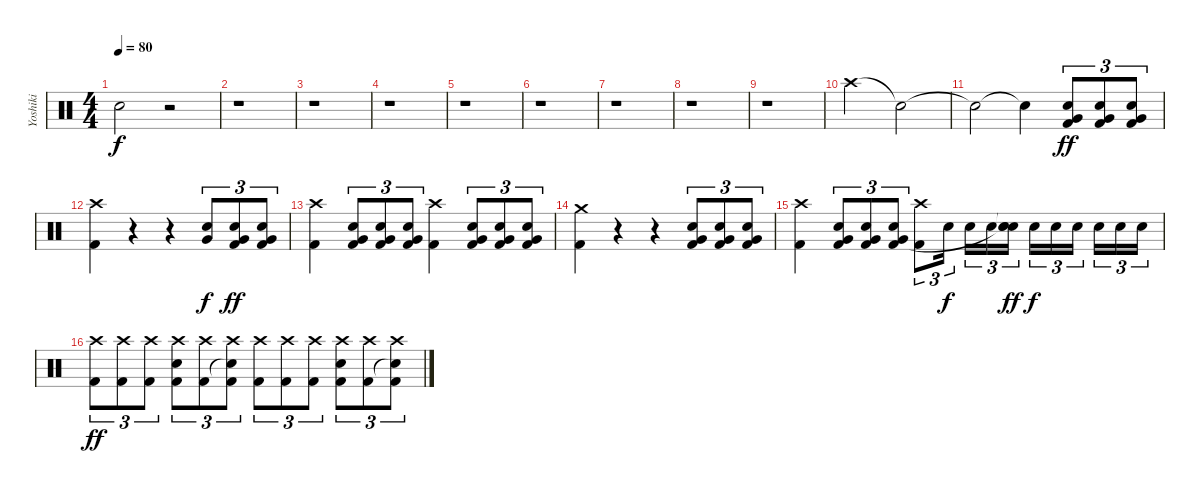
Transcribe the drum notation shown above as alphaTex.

\track ("Yoshiki" "Yoshiki") {instrument percussion}
\staff {score}
\articulation defaults
\ts (4 4)
\tempo 80
\clef neutral
\ks c "Snare (hit)"{t}.2{dy f}
r.2 |
r.1 |
r.1 |
r.1 |
r.1 |
r.1 |
r.1 |
r.1 |
r.1 |
"Crash high (hit)".2 "Snare (hit)"{t}.2 |
"Snare (hit)"{t}.2 "Snare (hit)"{t}.4 ("Snare (hit) 2" "Very Low Tom (hit)" "Kick (hit) 2").8{tu (3 2) dy ff} ("Snare (hit) 2" "Very Low Tom (hit)" "Kick (hit) 2").8{tu (3 2)} ("Snare (hit) 2" "Very Low Tom (hit)" "Kick (hit) 2").8{tu (3 2)} |
("Crash high (hit)" "Kick (hit) 2").4 r.4 r.4 ("Snare (hit) 2" "Very Low Tom (hit)").8{tu (3 2) dy f} ("Snare (hit) 2" "Very Low Tom (hit)" "Kick (hit) 2").8{tu (3 2) dy ff} ("Snare (hit) 2" "Very Low Tom (hit)" "Kick (hit) 2").8{tu (3 2)} |
("Crash high (hit)" "Kick (hit) 2").4 ("Snare (hit) 2" "Very Low Tom (hit)" "Kick (hit) 2").8{tu (3 2)} ("Snare (hit) 2" "Very Low Tom (hit)" "Kick (hit) 2").8{tu (3 2)} ("Snare (hit) 2" "Very Low Tom (hit)" "Kick (hit) 2").8{tu (3 2)} ("Crash high (hit)" "Kick (hit) 2").4 ("Snare (hit) 2" "Very Low Tom (hit)" "Kick (hit) 2").8{tu (3 2)} ("Snare (hit) 2" "Very Low Tom (hit)" "Kick (hit) 2").8{tu (3 2)} ("Snare (hit) 2" "Very Low Tom (hit)" "Kick (hit) 2").8{tu (3 2)} |
("Crash medium (hit)" "Kick (hit) 2").4 r.4 r.4 ("Snare (hit) 2" "Very Low Tom (hit)" "Kick (hit) 2").8{tu (3 2)} ("Snare (hit) 2" "Very Low Tom (hit)" "Kick (hit) 2").8{tu (3 2)} ("Snare (hit) 2" "Very Low Tom (hit)" "Kick (hit) 2").8{tu (3 2)} |
("Crash high (hit)" "Kick (hit) 2").4 ("Snare (hit) 2" "Very Low Tom (hit)" "Kick (hit) 2").8{tu (3 2)} ("Snare (hit) 2" "Very Low Tom (hit)" "Kick (hit) 2").8{tu (3 2)} ("Snare (hit) 2" "Very Low Tom (hit)" "Kick (hit) 2").8{tu (3 2)} ("Crash high (hit)" "Kick (hit) 2").8{tu (3 2)} "Snare (hit) 2".16{tu (3 2) dy f} "Snare (hit) 2".16{tu (3 2)} "Snare (hit) 2".16{tu (3 2)} ("Snare (hit)"{t} "Snare (hit) 2" "Snare (hit)"{t}).16{tu (3 2) dy ff} "Snare (hit) 2".16{tu (3 2) dy f} "Snare (hit) 2".16{tu (3 2)} "Snare (hit) 2".16{tu (3 2)} "Snare (hit) 2".16{tu (3 2)} "Snare (hit) 2".16{tu (3 2)} "Snare (hit) 2".16{tu (3 2)} |
("Crash high (hit)" "Kick (hit) 2").8{tu (3 2) dy ff} ("Crash high (hit)" "Kick (hit) 2").8{tu (3 2)} ("Crash high (hit)" "Kick (hit) 2").8{tu (3 2)} ("Crash high (hit)" "Snare (hit) 2" "Kick (hit) 2").8{tu (3 2)} ("Crash high (hit)" "Kick (hit) 2").8{tu (3 2)} ("Crash high (hit)" "Snare (hit)"{t} "Kick (hit) 2").8{tu (3 2)} ("Crash high (hit)" "Kick (hit) 2").8{tu (3 2)} ("Crash high (hit)" "Kick (hit) 2").8{tu (3 2)} ("Crash high (hit)" "Kick (hit) 2").8{tu (3 2)} ("Crash high (hit)" "Snare (hit) 2" "Kick (hit) 2").8{tu (3 2)} ("Crash high (hit)" "Kick (hit) 2").8{tu (3 2)} ("Crash high (hit)" "Snare (hit)"{t} "Kick (hit) 2").8{tu (3 2)}
